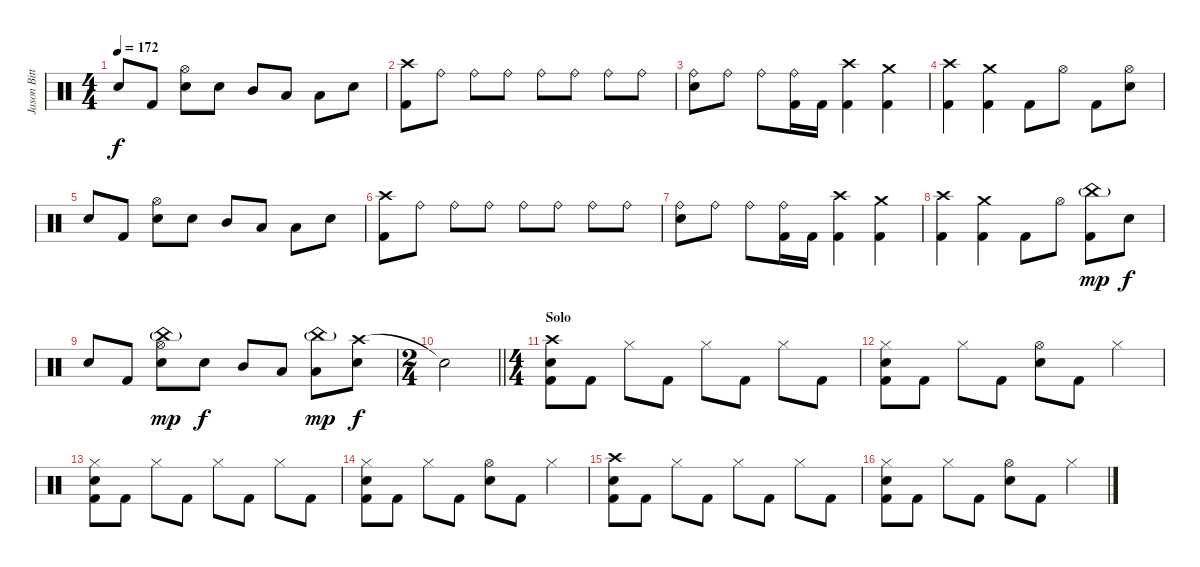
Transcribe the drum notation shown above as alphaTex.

\track ("Jason Bittner" "Jason Bitt") {instrument percussion}
\staff {score}
\articulation defaults
\ts (4 4)
\tempo 172
\clef neutral
\ks c "Electric Snare (hit)".8{dy f} "Kick (hit) 2".8
("Hi-Hat (open)" "Electric Snare (hit)").8 "Electric Snare (hit)".8 "Mid Tom (hit)".8 "Low Tom (hit)".8 "Low Floor Tom (hit)".8 "Electric Snare (hit)".8 |
("Crash high (hit)" "Kick (hit) 2").8 "Ride (bell)".8 "Ride (bell)".8 "Ride (bell)".8 "Ride (bell)".8 "Ride (bell)".8 "Ride (bell)".8 "Ride (bell)".8 |
("Ride (bell)" "Electric Snare (hit)").8 "Ride (bell)".8 "Ride (bell)".8 ("Ride (bell)" "Kick (hit) 2").16 "Kick (hit) 2".16 ("Crash high (hit)" "Kick (hit) 2").4 ("Crash medium (hit)" "Kick (hit) 2").4 |
("Crash high (hit)" "Kick (hit) 2").4 ("Crash medium (hit)" "Kick (hit) 2").4 "Kick (hit) 2".8 "Hi-Hat (open)".8 "Kick (hit) 2".8 ("Hi-Hat (open)" "Electric Snare (hit)").8 |
"Electric Snare (hit)".8 "Kick (hit) 2".8 ("Hi-Hat (open)" "Electric Snare (hit)").8 "Electric Snare (hit)".8 "Mid Tom (hit)".8 "Low Tom (hit)".8 "Low Floor Tom (hit)".8 "Electric Snare (hit)".8 |
("Crash high (hit)" "Kick (hit) 2").8 "Ride (bell)".8 "Ride (bell)".8 "Ride (bell)".8 "Ride (bell)".8 "Ride (bell)".8 "Ride (bell)".8 "Ride (bell)".8 |
("Ride (bell)" "Electric Snare (hit)").8 "Ride (bell)".8 "Ride (bell)".8 ("Ride (bell)" "Kick (hit) 2").16 "Kick (hit) 2".16 ("Crash high (hit)" "Kick (hit) 2").4 ("Crash medium (hit)" "Kick (hit) 2").4 |
("Crash high (hit)" "Kick (hit) 2").4 ("Crash medium (hit)" "Kick (hit) 2").4 "Kick (hit) 2".8 "Hi-Hat (open)".8 ("China (hit)"{g} "Kick (hit) 2").8{dy mp} "Electric Snare (hit)".8{dy f} |
"Electric Snare (hit)".8 "Kick (hit) 2".8 ("China (hit)"{g} "Hi-Hat (open)" "Electric Snare (hit)").8{dy mp} "Electric Snare (hit)".8{dy f} "Mid Tom (hit)".8 "Low Tom (hit)".8 ("China (hit)"{g} "Low Floor Tom (hit)").8{dy mp} ("Crash high (hit)" "Electric Snare (hit)").8{dy f} |
\ts (2 4)
\barLineRight lightlight "Snare (hit)"{t}.2
|
\ts (4 4)
\section ("" "Solo")
("Crash high (hit)" "Electric Snare (hit)" "Kick (hit) 2").8 "Kick (hit) 2".8 "Hi-Hat (closed)".8 "Kick (hit) 2".8 "Hi-Hat (closed)".8 "Kick (hit) 2".8 "Hi-Hat (closed)".8 "Kick (hit) 2".8 |
("Hi-Hat (closed)" "Electric Snare (hit)" "Kick (hit) 2").8 "Kick (hit) 2".8 "Hi-Hat (closed)".8 "Kick (hit) 2".8 ("Hi-Hat (open)" "Electric Snare (hit)").8 "Kick (hit) 2".8 "Hi-Hat (closed)".4 |
("Hi-Hat (closed)" "Electric Snare (hit)" "Kick (hit) 2").8 "Kick (hit) 2".8 "Hi-Hat (closed)".8 "Kick (hit) 2".8 "Hi-Hat (closed)".8 "Kick (hit) 2".8 "Hi-Hat (closed)".8 "Kick (hit) 2".8 |
("Hi-Hat (closed)" "Electric Snare (hit)" "Kick (hit) 2").8 "Kick (hit) 2".8 "Hi-Hat (closed)".8 "Kick (hit) 2".8 ("Hi-Hat (open)" "Electric Snare (hit)").8 "Kick (hit) 2".8 "Hi-Hat (closed)".4 |
("Crash high (hit)" "Electric Snare (hit)" "Kick (hit) 2").8 "Kick (hit) 2".8 "Hi-Hat (closed)".8 "Kick (hit) 2".8 "Hi-Hat (closed)".8 "Kick (hit) 2".8 "Hi-Hat (closed)".8 "Kick (hit) 2".8 |
("Hi-Hat (closed)" "Electric Snare (hit)" "Kick (hit) 2").8 "Kick (hit) 2".8 "Hi-Hat (closed)".8 "Kick (hit) 2".8 ("Hi-Hat (open)" "Electric Snare (hit)").8 "Kick (hit) 2".8 "Hi-Hat (closed)".4
